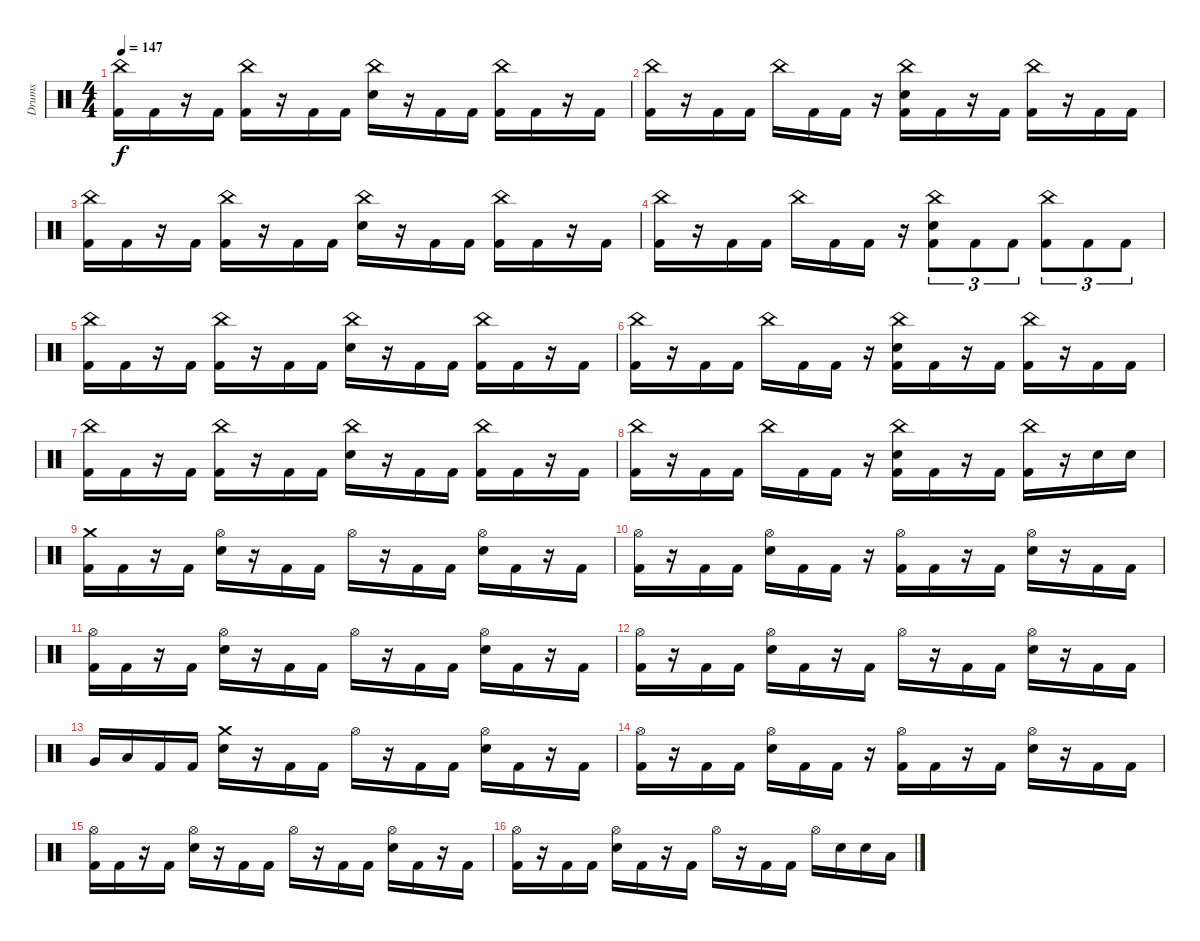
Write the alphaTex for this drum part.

\track ("Drums" "Drums") {instrument percussion}
\staff {score}
\articulation defaults
\ts (4 4)
\tempo 147
\clef neutral
\ks c
("China (hit)" "Kick (hit) 2").16{dy f} "Kick (hit) 2".16 r.16 "Kick (hit) 2".16 ("China (hit)" "Kick (hit) 2").16 r.16 "Kick (hit) 2".16 "Kick (hit) 2".16 ("China (hit)" "Electric Snare (hit)").16 r.16 "Kick (hit) 2".16 "Kick (hit) 2".16 ("China (hit)" "Kick (hit) 2").16 "Kick (hit) 2".16 r.16 "Kick (hit) 2".16 |
("China (hit)" "Kick (hit) 2").16 r.16 "Kick (hit) 2".16 "Kick (hit) 2".16 "China (hit)".16 "Kick (hit) 2".16 "Kick (hit) 2".16 r.16 ("China (hit)" "Electric Snare (hit)" "Kick (hit) 2").16 "Kick (hit) 2".16 r.16 "Kick (hit) 2".16 ("China (hit)" "Kick (hit) 2").16 r.16 "Kick (hit) 2".16 "Kick (hit) 2".16 |
("China (hit)" "Kick (hit) 2").16 "Kick (hit) 2".16 r.16 "Kick (hit) 2".16 ("China (hit)" "Kick (hit) 2").16 r.16 "Kick (hit) 2".16 "Kick (hit) 2".16 ("China (hit)" "Electric Snare (hit)").16 r.16 "Kick (hit) 2".16 "Kick (hit) 2".16 ("China (hit)" "Kick (hit) 2").16 "Kick (hit) 2".16 r.16 "Kick (hit) 2".16 |
("China (hit)" "Kick (hit) 2").16 r.16 "Kick (hit) 2".16 "Kick (hit) 2".16 "China (hit)".16 "Kick (hit) 2".16 "Kick (hit) 2".16 r.16 ("China (hit)" "Electric Snare (hit)" "Kick (hit) 2").8{tu (3 2)} "Kick (hit) 2".8{tu (3 2)} "Kick (hit) 2".8{tu (3 2)} ("China (hit)" "Kick (hit) 2").8{tu (3 2)} "Kick (hit) 2".8{tu (3 2)} "Kick (hit) 2".8{tu (3 2)} |
("China (hit)" "Kick (hit) 2").16 "Kick (hit) 2".16 r.16 "Kick (hit) 2".16 ("China (hit)" "Kick (hit) 2").16 r.16 "Kick (hit) 2".16 "Kick (hit) 2".16 ("China (hit)" "Electric Snare (hit)").16 r.16 "Kick (hit) 2".16 "Kick (hit) 2".16 ("China (hit)" "Kick (hit) 2").16 "Kick (hit) 2".16 r.16 "Kick (hit) 2".16 |
("China (hit)" "Kick (hit) 2").16 r.16 "Kick (hit) 2".16 "Kick (hit) 2".16 "China (hit)".16 "Kick (hit) 2".16 "Kick (hit) 2".16 r.16 ("China (hit)" "Electric Snare (hit)" "Kick (hit) 2").16 "Kick (hit) 2".16 r.16 "Kick (hit) 2".16 ("China (hit)" "Kick (hit) 2").16 r.16 "Kick (hit) 2".16 "Kick (hit) 2".16 |
("China (hit)" "Kick (hit) 2").16 "Kick (hit) 2".16 r.16 "Kick (hit) 2".16 ("China (hit)" "Kick (hit) 2").16 r.16 "Kick (hit) 2".16 "Kick (hit) 2".16 ("China (hit)" "Electric Snare (hit)").16 r.16 "Kick (hit) 2".16 "Kick (hit) 2".16 ("China (hit)" "Kick (hit) 2").16 "Kick (hit) 2".16 r.16 "Kick (hit) 2".16 |
("China (hit)" "Kick (hit) 2").16 r.16 "Kick (hit) 2".16 "Kick (hit) 2".16 "China (hit)".16 "Kick (hit) 2".16 "Kick (hit) 2".16 r.16 ("China (hit)" "Electric Snare (hit)" "Kick (hit) 2").16 "Kick (hit) 2".16 r.16 "Kick (hit) 2".16 ("China (hit)" "Kick (hit) 2").16 r.16 "Electric Snare (hit)".16 "Electric Snare (hit)".16 |
("Crash medium (hit)" "Kick (hit) 2").16 "Kick (hit) 2".16 r.16 "Kick (hit) 2".16 ("Hi-Hat (open)" "Electric Snare (hit)").16 r.16 "Kick (hit) 2".16 "Kick (hit) 2".16 "Hi-Hat (open)".16 r.16 "Kick (hit) 2".16 "Kick (hit) 2".16 ("Hi-Hat (open)" "Electric Snare (hit)").16 "Kick (hit) 2".16 r.16 "Kick (hit) 2".16 |
("Hi-Hat (open)" "Kick (hit) 2").16 r.16 "Kick (hit) 2".16 "Kick (hit) 2".16 ("Hi-Hat (open)" "Electric Snare (hit)").16 "Kick (hit) 2".16 "Kick (hit) 2".16 r.16 ("Hi-Hat (open)" "Kick (hit) 2").16 "Kick (hit) 2".16 r.16 "Kick (hit) 2".16 ("Hi-Hat (open)" "Electric Snare (hit)").16 r.16 "Kick (hit) 2".16 "Kick (hit) 2".16 |
("Hi-Hat (open)" "Kick (hit) 2").16 "Kick (hit) 2".16 r.16 "Kick (hit) 2".16 ("Hi-Hat (open)" "Electric Snare (hit)").16 r.16 "Kick (hit) 2".16 "Kick (hit) 2".16 "Hi-Hat (open)".16 r.16 "Kick (hit) 2".16 "Kick (hit) 2".16 ("Hi-Hat (open)" "Electric Snare (hit)").16 "Kick (hit) 2".16 r.16 "Kick (hit) 2".16 |
("Hi-Hat (open)" "Kick (hit) 2").16 r.16 "Kick (hit) 2".16 "Kick (hit) 2".16 ("Hi-Hat (open)" "Electric Snare (hit)").16 "Kick (hit) 2".16 r.16 "Kick (hit) 2".16 "Hi-Hat (open)".16 r.16 "Kick (hit) 2".16 "Kick (hit) 2".16 ("Hi-Hat (open)" "Electric Snare (hit)").16 r.16 "Kick (hit) 2".16 "Kick (hit) 2".16 |
"Very Low Tom (hit)".16 "Low Floor Tom (hit)".16 "Kick (hit) 2".16 "Kick (hit) 2".16 ("Crash medium (hit)" "Electric Snare (hit)").16 r.16 "Kick (hit) 2".16 "Kick (hit) 2".16 "Hi-Hat (open)".16 r.16 "Kick (hit) 2".16 "Kick (hit) 2".16 ("Hi-Hat (open)" "Electric Snare (hit)").16 "Kick (hit) 2".16 r.16 "Kick (hit) 2".16 |
("Hi-Hat (open)" "Kick (hit) 2").16 r.16 "Kick (hit) 2".16 "Kick (hit) 2".16 ("Hi-Hat (open)" "Electric Snare (hit)").16 "Kick (hit) 2".16 "Kick (hit) 2".16 r.16 ("Hi-Hat (open)" "Kick (hit) 2").16 "Kick (hit) 2".16 r.16 "Kick (hit) 2".16 ("Hi-Hat (open)" "Electric Snare (hit)").16 r.16 "Kick (hit) 2".16 "Kick (hit) 2".16 |
("Hi-Hat (open)" "Kick (hit) 2").16 "Kick (hit) 2".16 r.16 "Kick (hit) 2".16 ("Hi-Hat (open)" "Electric Snare (hit)").16 r.16 "Kick (hit) 2".16 "Kick (hit) 2".16 "Hi-Hat (open)".16 r.16 "Kick (hit) 2".16 "Kick (hit) 2".16 ("Hi-Hat (open)" "Electric Snare (hit)").16 "Kick (hit) 2".16 r.16 "Kick (hit) 2".16 |
("Hi-Hat (open)" "Kick (hit) 2").16 r.16 "Kick (hit) 2".16 "Kick (hit) 2".16 ("Hi-Hat (open)" "Electric Snare (hit)").16 "Kick (hit) 2".16 r.16 "Kick (hit) 2".16 "Hi-Hat (open)".16 r.16 "Kick (hit) 2".16 "Kick (hit) 2".16 "Hi-Hat (open)".16 "Electric Snare (hit)".16 "Electric Snare (hit)".16 "Low Tom (hit)".16
